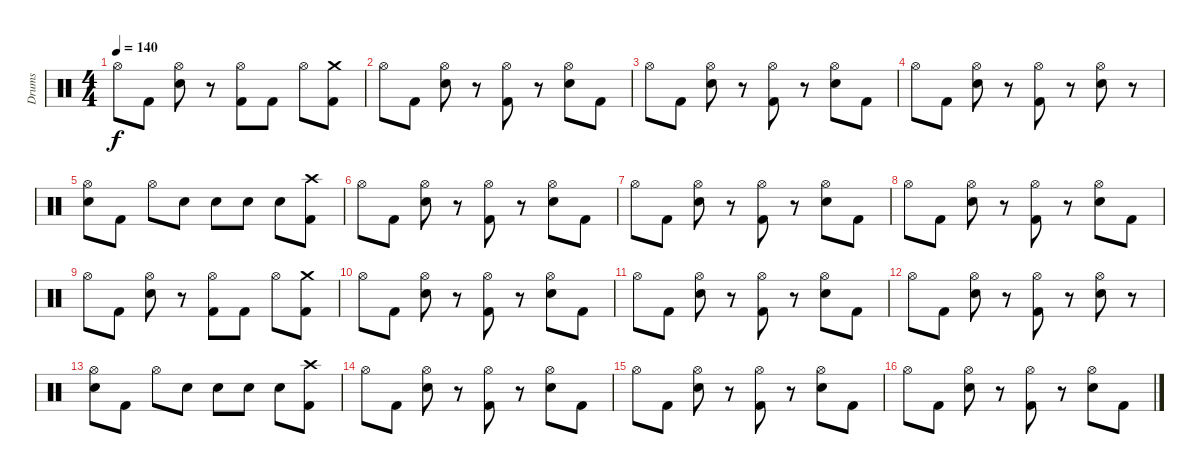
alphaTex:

\track ("Drums" "Drums") {instrument percussion}
\staff {score}
\articulation defaults
\ts (4 4)
\tempo 140
\clef neutral
\ks c "Hi-Hat (open)".8{dy f} "Kick (hit) 2".8
("Hi-Hat (open)" "Electric Snare (hit)").8 r.8 ("Hi-Hat (open)" "Kick (hit) 2").8 "Kick (hit) 2".8 "Hi-Hat (open)".8 ("Crash medium (hit)" "Kick (hit) 2").8 |
"Hi-Hat (open)".8 "Kick (hit) 2".8 ("Hi-Hat (open)" "Electric Snare (hit)").8 r.8 ("Hi-Hat (open)" "Kick (hit) 2").8 r.8 ("Hi-Hat (open)" "Electric Snare (hit)").8 "Kick (hit) 2".8 |
"Hi-Hat (open)".8 "Kick (hit) 2".8 ("Hi-Hat (open)" "Electric Snare (hit)").8 r.8 ("Hi-Hat (open)" "Kick (hit) 2").8 r.8 ("Hi-Hat (open)" "Electric Snare (hit)").8 "Kick (hit) 2".8 |
"Hi-Hat (open)".8 "Kick (hit) 2".8 ("Hi-Hat (open)" "Electric Snare (hit)").8 r.8 ("Hi-Hat (open)" "Kick (hit) 2").8 r.8 ("Hi-Hat (open)" "Electric Snare (hit)").8 r.8 |
("Hi-Hat (open)" "Electric Snare (hit)").8 "Kick (hit) 2".8 "Hi-Hat (open)".8 "Electric Snare (hit)".8 "Electric Snare (hit)".8 "Electric Snare (hit)".8 "Electric Snare (hit)".8 ("Crash high (hit)" "Kick (hit) 2").8 |
"Hi-Hat (open)".8 "Kick (hit) 2".8 ("Hi-Hat (open)" "Electric Snare (hit)").8 r.8 ("Hi-Hat (open)" "Kick (hit) 2").8 r.8 ("Hi-Hat (open)" "Electric Snare (hit)").8 "Kick (hit) 2".8 |
"Hi-Hat (open)".8 "Kick (hit) 2".8 ("Hi-Hat (open)" "Electric Snare (hit)").8 r.8 ("Hi-Hat (open)" "Kick (hit) 2").8 r.8 ("Hi-Hat (open)" "Electric Snare (hit)").8 "Kick (hit) 2".8 |
"Hi-Hat (open)".8 "Kick (hit) 2".8 ("Hi-Hat (open)" "Electric Snare (hit)").8 r.8 ("Hi-Hat (open)" "Kick (hit) 2").8 r.8 ("Hi-Hat (open)" "Electric Snare (hit)").8 "Kick (hit) 2".8 |
"Hi-Hat (open)".8 "Kick (hit) 2".8 ("Hi-Hat (open)" "Electric Snare (hit)").8 r.8 ("Hi-Hat (open)" "Kick (hit) 2").8 "Kick (hit) 2".8 "Hi-Hat (open)".8 ("Crash medium (hit)" "Kick (hit) 2").8 |
"Hi-Hat (open)".8 "Kick (hit) 2".8 ("Hi-Hat (open)" "Electric Snare (hit)").8 r.8 ("Hi-Hat (open)" "Kick (hit) 2").8 r.8 ("Hi-Hat (open)" "Electric Snare (hit)").8 "Kick (hit) 2".8 |
"Hi-Hat (open)".8 "Kick (hit) 2".8 ("Hi-Hat (open)" "Electric Snare (hit)").8 r.8 ("Hi-Hat (open)" "Kick (hit) 2").8 r.8 ("Hi-Hat (open)" "Electric Snare (hit)").8 "Kick (hit) 2".8 |
"Hi-Hat (open)".8 "Kick (hit) 2".8 ("Hi-Hat (open)" "Electric Snare (hit)").8 r.8 ("Hi-Hat (open)" "Kick (hit) 2").8 r.8 ("Hi-Hat (open)" "Electric Snare (hit)").8 r.8 |
("Hi-Hat (open)" "Electric Snare (hit)").8 "Kick (hit) 2".8 "Hi-Hat (open)".8 "Electric Snare (hit)".8 "Electric Snare (hit)".8 "Electric Snare (hit)".8 "Electric Snare (hit)".8 ("Crash high (hit)" "Kick (hit) 2").8 |
"Hi-Hat (open)".8 "Kick (hit) 2".8 ("Hi-Hat (open)" "Electric Snare (hit)").8 r.8 ("Hi-Hat (open)" "Kick (hit) 2").8 r.8 ("Hi-Hat (open)" "Electric Snare (hit)").8 "Kick (hit) 2".8 |
"Hi-Hat (open)".8 "Kick (hit) 2".8 ("Hi-Hat (open)" "Electric Snare (hit)").8 r.8 ("Hi-Hat (open)" "Kick (hit) 2").8 r.8 ("Hi-Hat (open)" "Electric Snare (hit)").8 "Kick (hit) 2".8 |
"Hi-Hat (open)".8 "Kick (hit) 2".8 ("Hi-Hat (open)" "Electric Snare (hit)").8 r.8 ("Hi-Hat (open)" "Kick (hit) 2").8 r.8 ("Hi-Hat (open)" "Electric Snare (hit)").8 "Kick (hit) 2".8
